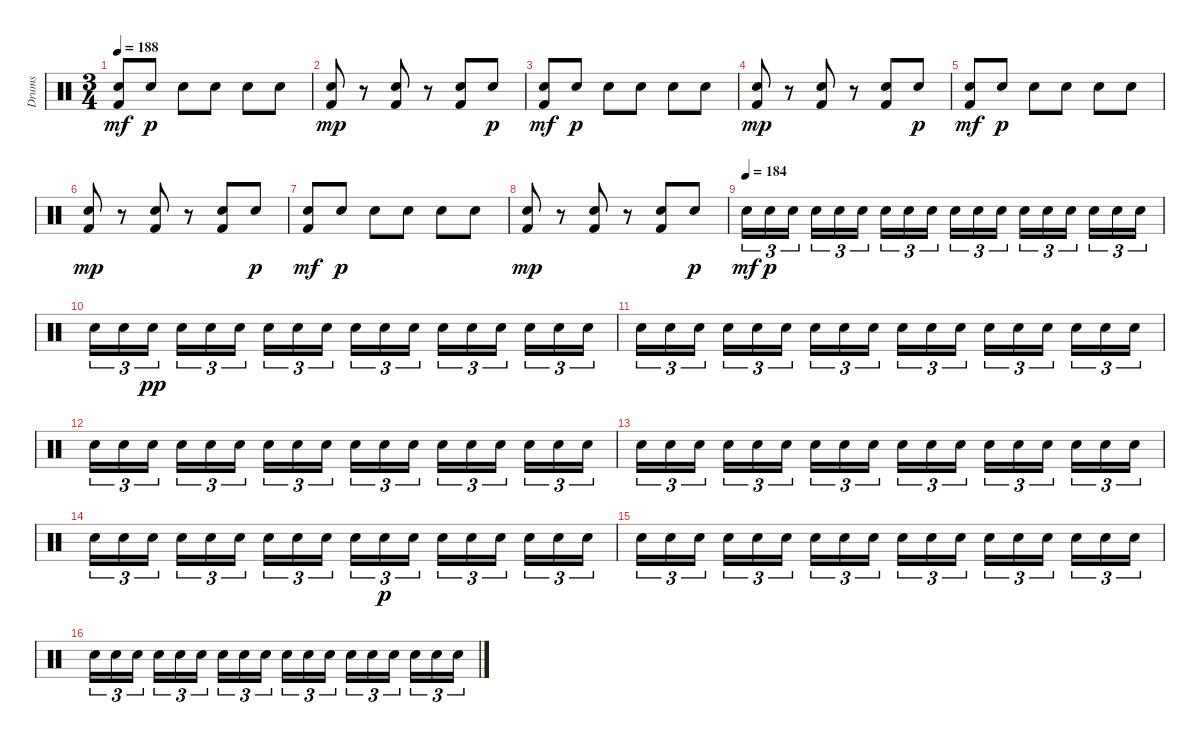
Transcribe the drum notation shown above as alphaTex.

\track ("Drums" "Drums") {instrument percussion}
\staff {score}
\articulation defaults
\ts (3 4)
\tempo 188
\clef neutral
\ks c
("Kick (hit) 2" "Electric Snare (hit)").8{dy mf} "Electric Snare (hit)".8{dy p} "Electric Snare (hit)".8 "Electric Snare (hit)".8 "Electric Snare (hit)".8 "Electric Snare (hit)".8 |
("Kick (hit) 2" "Electric Snare (hit)").8{dy mp} r.8 ("Kick (hit) 2" "Electric Snare (hit)").8 r.8 ("Kick (hit) 2" "Electric Snare (hit)").8 "Electric Snare (hit)".8{dy p} |
("Kick (hit) 2" "Electric Snare (hit)").8{dy mf} "Electric Snare (hit)".8{dy p} "Electric Snare (hit)".8 "Electric Snare (hit)".8 "Electric Snare (hit)".8 "Electric Snare (hit)".8 |
("Kick (hit) 2" "Electric Snare (hit)").8{dy mp} r.8 ("Kick (hit) 2" "Electric Snare (hit)").8 r.8 ("Kick (hit) 2" "Electric Snare (hit)").8 "Electric Snare (hit)".8{dy p} |
("Kick (hit) 2" "Electric Snare (hit)").8{dy mf} "Electric Snare (hit)".8{dy p} "Electric Snare (hit)".8 "Electric Snare (hit)".8 "Electric Snare (hit)".8 "Electric Snare (hit)".8 |
("Kick (hit) 2" "Electric Snare (hit)").8{dy mp} r.8 ("Kick (hit) 2" "Electric Snare (hit)").8 r.8 ("Kick (hit) 2" "Electric Snare (hit)").8 "Electric Snare (hit)".8{dy p} |
("Kick (hit) 2" "Electric Snare (hit)").8{dy mf} "Electric Snare (hit)".8{dy p} "Electric Snare (hit)".8 "Electric Snare (hit)".8 "Electric Snare (hit)".8 "Electric Snare (hit)".8 |
("Kick (hit) 2" "Electric Snare (hit)").8{dy mp} r.8 ("Kick (hit) 2" "Electric Snare (hit)").8 r.8 ("Kick (hit) 2" "Electric Snare (hit)").8 "Electric Snare (hit)".8{dy p} |
\tempo (184)
"Electric Snare (hit)".16{tu (3 2) dy mf} "Electric Snare (hit)".16{tu (3 2) dy p} "Electric Snare (hit)".16{tu (3 2)} "Electric Snare (hit)".16{tu (3 2)} "Electric Snare (hit)".16{tu (3 2)} "Electric Snare (hit)".16{tu (3 2)} "Electric Snare (hit)".16{tu (3 2)} "Electric Snare (hit)".16{tu (3 2)} "Electric Snare (hit)".16{tu (3 2)} "Electric Snare (hit)".16{tu (3 2)} "Electric Snare (hit)".16{tu (3 2)} "Electric Snare (hit)".16{tu (3 2)} "Electric Snare (hit)".16{tu (3 2)} "Electric Snare (hit)".16{tu (3 2)} "Electric Snare (hit)".16{tu (3 2)} "Electric Snare (hit)".16{tu (3 2)} "Electric Snare (hit)".16{tu (3 2)} "Electric Snare (hit)".16{tu (3 2)} |
"Electric Snare (hit)".16{tu (3 2)} "Electric Snare (hit)".16{tu (3 2)} "Electric Snare (hit)".16{tu (3 2) dy pp} "Electric Snare (hit)".16{tu (3 2)} "Electric Snare (hit)".16{tu (3 2)} "Electric Snare (hit)".16{tu (3 2)} "Electric Snare (hit)".16{tu (3 2)} "Electric Snare (hit)".16{tu (3 2)} "Electric Snare (hit)".16{tu (3 2)} "Electric Snare (hit)".16{tu (3 2)} "Electric Snare (hit)".16{tu (3 2)} "Electric Snare (hit)".16{tu (3 2)} "Electric Snare (hit)".16{tu (3 2)} "Electric Snare (hit)".16{tu (3 2)} "Electric Snare (hit)".16{tu (3 2)} "Electric Snare (hit)".16{tu (3 2)} "Electric Snare (hit)".16{tu (3 2)} "Electric Snare (hit)".16{tu (3 2)} |
"Electric Snare (hit)".16{tu (3 2)} "Electric Snare (hit)".16{tu (3 2)} "Electric Snare (hit)".16{tu (3 2)} "Electric Snare (hit)".16{tu (3 2)} "Electric Snare (hit)".16{tu (3 2)} "Electric Snare (hit)".16{tu (3 2)} "Electric Snare (hit)".16{tu (3 2)} "Electric Snare (hit)".16{tu (3 2)} "Electric Snare (hit)".16{tu (3 2)} "Electric Snare (hit)".16{tu (3 2)} "Electric Snare (hit)".16{tu (3 2)} "Electric Snare (hit)".16{tu (3 2)} "Electric Snare (hit)".16{tu (3 2)} "Electric Snare (hit)".16{tu (3 2)} "Electric Snare (hit)".16{tu (3 2)} "Electric Snare (hit)".16{tu (3 2)} "Electric Snare (hit)".16{tu (3 2)} "Electric Snare (hit)".16{tu (3 2)} |
"Electric Snare (hit)".16{tu (3 2)} "Electric Snare (hit)".16{tu (3 2)} "Electric Snare (hit)".16{tu (3 2)} "Electric Snare (hit)".16{tu (3 2)} "Electric Snare (hit)".16{tu (3 2)} "Electric Snare (hit)".16{tu (3 2)} "Electric Snare (hit)".16{tu (3 2)} "Electric Snare (hit)".16{tu (3 2)} "Electric Snare (hit)".16{tu (3 2)} "Electric Snare (hit)".16{tu (3 2)} "Electric Snare (hit)".16{tu (3 2)} "Electric Snare (hit)".16{tu (3 2)} "Electric Snare (hit)".16{tu (3 2)} "Electric Snare (hit)".16{tu (3 2)} "Electric Snare (hit)".16{tu (3 2)} "Electric Snare (hit)".16{tu (3 2)} "Electric Snare (hit)".16{tu (3 2)} "Electric Snare (hit)".16{tu (3 2)} |
"Electric Snare (hit)".16{tu (3 2)} "Electric Snare (hit)".16{tu (3 2)} "Electric Snare (hit)".16{tu (3 2)} "Electric Snare (hit)".16{tu (3 2)} "Electric Snare (hit)".16{tu (3 2)} "Electric Snare (hit)".16{tu (3 2)} "Electric Snare (hit)".16{tu (3 2)} "Electric Snare (hit)".16{tu (3 2)} "Electric Snare (hit)".16{tu (3 2)} "Electric Snare (hit)".16{tu (3 2)} "Electric Snare (hit)".16{tu (3 2)} "Electric Snare (hit)".16{tu (3 2)} "Electric Snare (hit)".16{tu (3 2)} "Electric Snare (hit)".16{tu (3 2)} "Electric Snare (hit)".16{tu (3 2)} "Electric Snare (hit)".16{tu (3 2)} "Electric Snare (hit)".16{tu (3 2)} "Electric Snare (hit)".16{tu (3 2)} |
"Electric Snare (hit)".16{tu (3 2)} "Electric Snare (hit)".16{tu (3 2)} "Electric Snare (hit)".16{tu (3 2)} "Electric Snare (hit)".16{tu (3 2)} "Electric Snare (hit)".16{tu (3 2)} "Electric Snare (hit)".16{tu (3 2)} "Electric Snare (hit)".16{tu (3 2)} "Electric Snare (hit)".16{tu (3 2)} "Electric Snare (hit)".16{tu (3 2)} "Electric Snare (hit)".16{tu (3 2)} "Electric Snare (hit)".16{tu (3 2) dy p} "Electric Snare (hit)".16{tu (3 2)} "Electric Snare (hit)".16{tu (3 2)} "Electric Snare (hit)".16{tu (3 2)} "Electric Snare (hit)".16{tu (3 2)} "Electric Snare (hit)".16{tu (3 2)} "Electric Snare (hit)".16{tu (3 2)} "Electric Snare (hit)".16{tu (3 2)} |
"Electric Snare (hit)".16{tu (3 2)} "Electric Snare (hit)".16{tu (3 2)} "Electric Snare (hit)".16{tu (3 2)} "Electric Snare (hit)".16{tu (3 2)} "Electric Snare (hit)".16{tu (3 2)} "Electric Snare (hit)".16{tu (3 2)} "Electric Snare (hit)".16{tu (3 2)} "Electric Snare (hit)".16{tu (3 2)} "Electric Snare (hit)".16{tu (3 2)} "Electric Snare (hit)".16{tu (3 2)} "Electric Snare (hit)".16{tu (3 2)} "Electric Snare (hit)".16{tu (3 2)} "Electric Snare (hit)".16{tu (3 2)} "Electric Snare (hit)".16{tu (3 2)} "Electric Snare (hit)".16{tu (3 2)} "Electric Snare (hit)".16{tu (3 2)} "Electric Snare (hit)".16{tu (3 2)} "Electric Snare (hit)".16{tu (3 2)} |
"Electric Snare (hit)".16{tu (3 2)} "Electric Snare (hit)".16{tu (3 2)} "Electric Snare (hit)".16{tu (3 2)} "Electric Snare (hit)".16{tu (3 2)} "Electric Snare (hit)".16{tu (3 2)} "Electric Snare (hit)".16{tu (3 2)} "Electric Snare (hit)".16{tu (3 2)} "Electric Snare (hit)".16{tu (3 2)} "Electric Snare (hit)".16{tu (3 2)} "Electric Snare (hit)".16{tu (3 2)} "Electric Snare (hit)".16{tu (3 2)} "Electric Snare (hit)".16{tu (3 2)} "Electric Snare (hit)".16{tu (3 2)} "Electric Snare (hit)".16{tu (3 2)} "Electric Snare (hit)".16{tu (3 2)} "Electric Snare (hit)".16{tu (3 2)} "Electric Snare (hit)".16{tu (3 2)} "Electric Snare (hit)".16{tu (3 2)}
